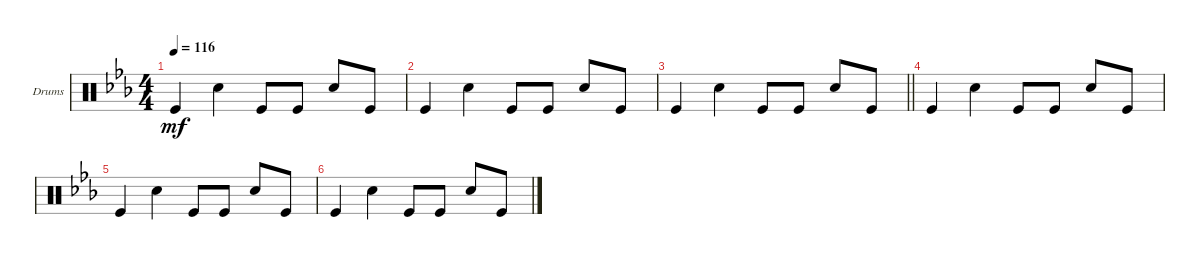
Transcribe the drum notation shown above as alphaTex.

\defaultSystemsLayout 4
\bracketExtendMode groupsimilarinstruments
\firstSystemTrackNameOrientation horizontal
\otherSystemsTrackNameOrientation horizontal
\track ("Drumkit" "Drums") {instrument percussion}
\staff {score}
\articulation defaults
\ts (4 4)
\tempo 116
\clef neutral
\ks cminor "Kick (hit)".4{dy mf} "Snare (hit) 2".4 "Kick (hit)".8 "Kick (hit)".8 "Snare (hit) 2".8 "Kick (hit)".8
|
"Kick (hit)".4 "Snare (hit) 2".4 "Kick (hit)".8 "Kick (hit)".8 "Snare (hit) 2".8 "Kick (hit)".8 |
\barLineRight lightlight "Kick (hit)".4 "Snare (hit) 2".4 "Kick (hit)".8 "Kick (hit)".8 "Snare (hit) 2".8 "Kick (hit)".8
|
"Kick (hit)".4 "Snare (hit) 2".4 "Kick (hit)".8 "Kick (hit)".8 "Snare (hit) 2".8 "Kick (hit)".8 |
"Kick (hit)".4 "Snare (hit) 2".4 "Kick (hit)".8 "Kick (hit)".8 "Snare (hit) 2".8 "Kick (hit)".8 |
"Kick (hit)".4 "Snare (hit) 2".4 "Kick (hit)".8 "Kick (hit)".8 "Snare (hit) 2".8 "Kick (hit)".8
